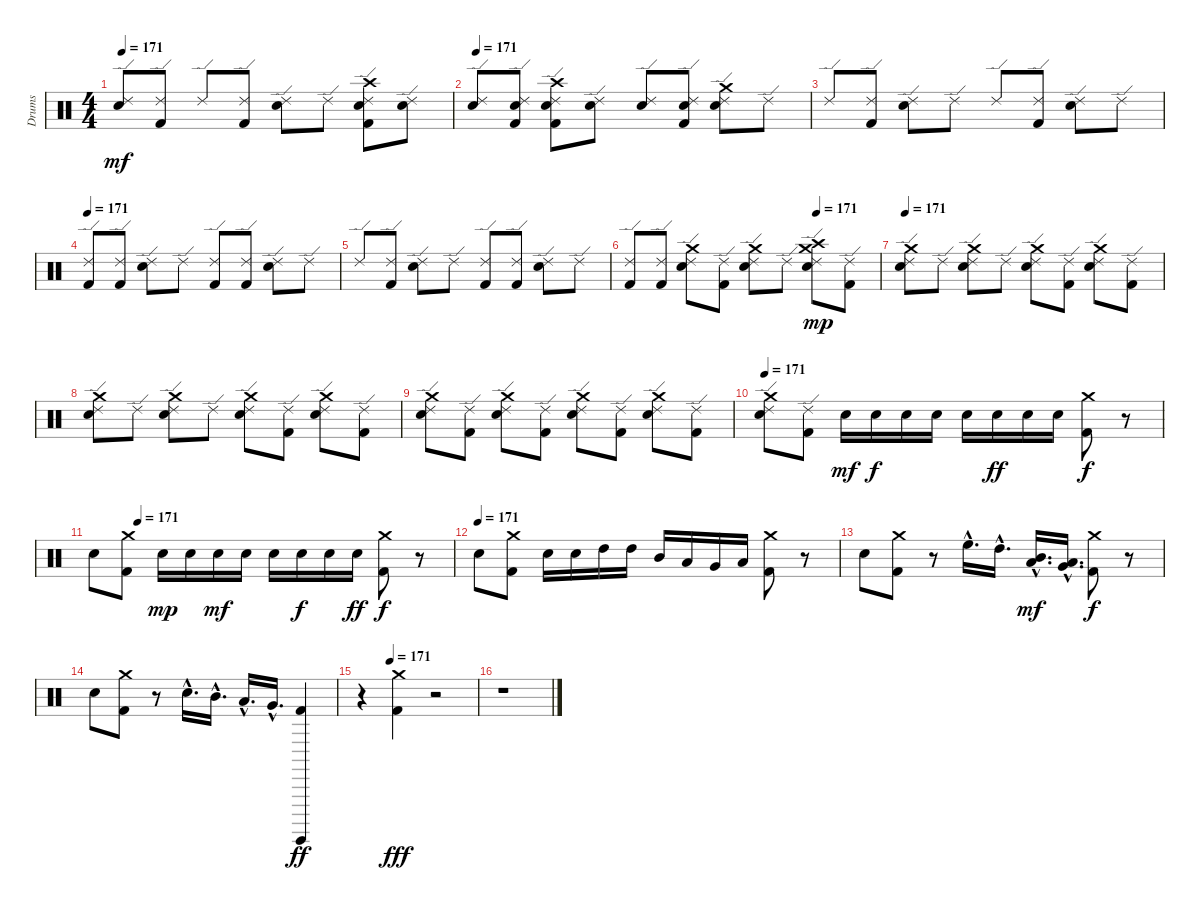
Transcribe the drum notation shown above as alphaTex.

\track ("Drums" "Drums") {instrument percussion}
\staff {score}
\articulation defaults
\ts (4 4)
\tempo 171
\clef neutral
\ks c
("Electric Snare (hit)" "Ride (edge) 2").8{dy mf} ("Kick (hit) 2" "Ride (edge) 2").8 "Ride (edge) 2".8 ("Kick (hit) 2" "Ride (edge) 2").8 ("Electric Snare (hit)" "Ride (edge) 2").8 "Ride (edge) 2".8 ("Kick (hit) 2" "Electric Snare (hit)" "Crash high (hit)" "Ride (edge) 2").8 ("Electric Snare (hit)" "Ride (edge) 2").8 |
\tempo 171
("Electric Snare (hit)" "Ride (edge) 2").8 ("Kick (hit) 2" "Electric Snare (hit)" "Ride (edge) 2").8 ("Kick (hit) 2" "Electric Snare (hit)" "Crash high (hit)" "Ride (edge) 2").8 ("Electric Snare (hit)" "Ride (edge) 2").8 ("Electric Snare (hit)" "Ride (edge) 2").8 ("Kick (hit) 2" "Electric Snare (hit)" "Ride (edge) 2").8 ("Electric Snare (hit)" "Crash medium (hit)" "Ride (edge) 2").8 "Ride (edge) 2".8 |
"Ride (edge) 2".8 ("Kick (hit) 2" "Ride (edge) 2").8 ("Electric Snare (hit)" "Ride (edge) 2").8 "Ride (edge) 2".8 "Ride (edge) 2".8 ("Kick (hit) 2" "Ride (edge) 2").8 ("Electric Snare (hit)" "Ride (edge) 2").8 "Ride (edge) 2".8 |
\tempo 171
("Kick (hit) 2" "Ride (edge) 2").8 ("Kick (hit) 2" "Ride (edge) 2").8 ("Electric Snare (hit)" "Ride (edge) 2").8 "Ride (edge) 2".8 ("Kick (hit) 2" "Ride (edge) 2").8 ("Kick (hit) 2" "Ride (edge) 2").8 ("Electric Snare (hit)" "Ride (edge) 2").8 "Ride (edge) 2".8 |
"Ride (edge) 2".8 ("Kick (hit) 2" "Ride (edge) 2").8 ("Electric Snare (hit)" "Ride (edge) 2").8 "Ride (edge) 2".8 ("Kick (hit) 2" "Ride (edge) 2").8 ("Kick (hit) 2" "Ride (edge) 2").8 ("Electric Snare (hit)" "Ride (edge) 2").8 "Ride (edge) 2".8 |
\tempo (171 0.75)
("Kick (hit) 2" "Ride (edge) 2").8 ("Kick (hit) 2" "Ride (edge) 2").8 ("Electric Snare (hit)" "Crash medium (hit)" "Ride (edge) 2").8 ("Kick (hit) 2" "Ride (edge) 2").8 ("Electric Snare (hit)" "Crash medium (hit)" "Ride (edge) 2").8 "Ride (edge) 2".8 ("Crash medium (hit)" "Electric Snare (hit)" "Crash high (hit)" "Ride (edge) 2").8{dy mp} ("Kick (hit) 2" "Ride (edge) 2").8 |
\tempo 171
("Crash medium (hit)" "Electric Snare (hit)" "Ride (edge) 2").8 "Ride (edge) 2".8 ("Crash medium (hit)" "Electric Snare (hit)" "Ride (edge) 2").8 "Ride (edge) 2".8 ("Crash medium (hit)" "Electric Snare (hit)" "Ride (edge) 2").8 ("Kick (hit) 2" "Ride (edge) 2").8 ("Crash medium (hit)" "Electric Snare (hit)" "Ride (edge) 2").8 ("Kick (hit) 2" "Ride (edge) 2").8 |
("Crash medium (hit)" "Electric Snare (hit)" "Ride (edge) 2").8 "Ride (edge) 2".8 ("Crash medium (hit)" "Electric Snare (hit)" "Ride (edge) 2").8 "Ride (edge) 2".8 ("Crash medium (hit)" "Electric Snare (hit)" "Ride (edge) 2").8 ("Kick (hit) 2" "Ride (edge) 2").8 ("Crash medium (hit)" "Electric Snare (hit)" "Ride (edge) 2").8 ("Kick (hit) 2" "Ride (edge) 2").8 |
("Crash medium (hit)" "Electric Snare (hit)" "Ride (edge) 2").8 ("Kick (hit) 2" "Ride (edge) 2").8 ("Crash medium (hit)" "Electric Snare (hit)" "Ride (edge) 2").8 ("Kick (hit) 2" "Ride (edge) 2").8 ("Crash medium (hit)" "Electric Snare (hit)" "Ride (edge) 2").8 ("Kick (hit) 2" "Ride (edge) 2").8 ("Crash medium (hit)" "Electric Snare (hit)" "Ride (edge) 2").8 ("Kick (hit) 2" "Ride (edge) 2").8 |
\tempo 171
("Crash medium (hit)" "Electric Snare (hit)" "Ride (edge) 2").8 ("Kick (hit) 2" "Ride (edge) 2").8 "Electric Snare (hit)".16{dy mf} "Electric Snare (hit)".16{dy f} "Electric Snare (hit)".16 "Electric Snare (hit)".16 "Electric Snare (hit)".16 "Electric Snare (hit)".16{dy ff} "Electric Snare (hit)".16 "Electric Snare (hit)".16 ("Kick (hit) 2" "Crash medium (hit)").8{dy f} r.8 |
\tempo (171 0.125)
"Electric Snare (hit)".8 ("Kick (hit) 2" "Crash medium (hit)").8 "Electric Snare (hit)".16{dy mp} "Electric Snare (hit)".16 "Electric Snare (hit)".16{dy mf} "Electric Snare (hit)".16 "Electric Snare (hit)".16 "Electric Snare (hit)".16{dy f} "Electric Snare (hit)".16 "Electric Snare (hit)".16{dy ff} ("Kick (hit) 2" "Crash medium (hit)").8{dy f} r.8 |
\tempo (171)
"Electric Snare (hit)".8 ("Kick (hit) 2" "Crash medium (hit)").8 "Electric Snare (hit)".16 "Electric Snare (hit)".16 "High Tom (hit)".16 "High Tom (hit)".16 "Mid Tom (hit)".16 "Low Tom (hit)".16 "Very Low Tom (hit)".16 "Low Floor Tom (hit)".16 ("Kick (hit) 2" "Crash medium (hit)").8 r.8 |
"Electric Snare (hit)".8 ("Kick (hit) 2" "Crash medium (hit)").8 r.8 "High Floor Tom (hit)"{hac}.16{d} "High Tom (hit)"{hac}.16{d} ("Low Tom (hit)"{hac} "Mid Tom (hit)"{hac}).16{d dy mf} ("Very Low Tom (hit)"{hac} "Low Tom (hit)"{hac}).16{d} ("Kick (hit) 2" "Crash medium (hit)").8{dy f} r.8 |
"Electric Snare (hit)".8 ("Kick (hit) 2" "Crash medium (hit)").8 r.8 "Electric Snare (hit)"{hac}.16{d} "Mid Tom (hit)"{hac}.16{d} "Low Tom (hit)"{hac}.16{d} "Very Low Tom (hit)"{hac}.16{d} ("Kick (hit) 2" "Surdo (hit)").4{dy ff} |
\tempo (171 0.25)
r.4 ("Kick (hit) 2" "Crash medium (hit)").4{dy fff} r.2 |
r.1
